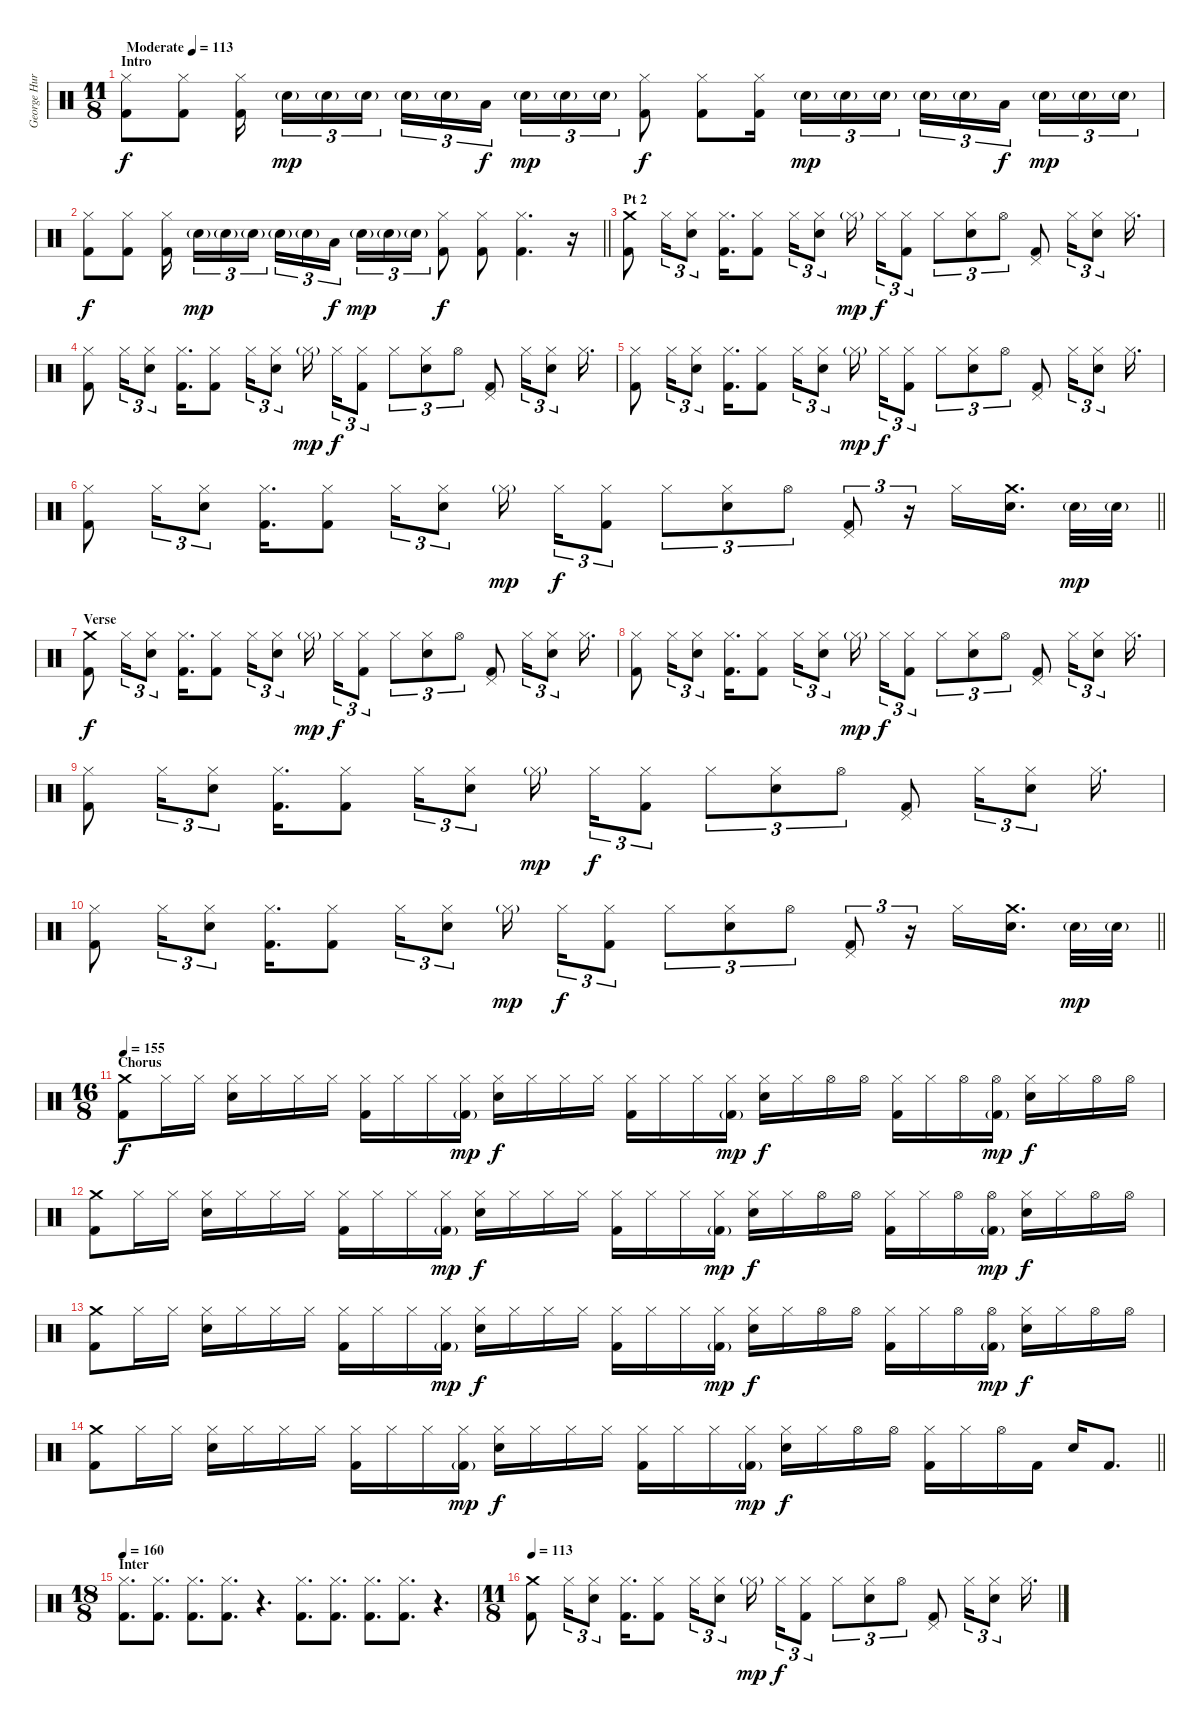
\track ("George Hurley [Drums]" "George Hur") {instrument percussion}
\staff
\articulation defaults
\ts (11 8)
\section ("" "Intro")
\tempo (113 "Moderate")
\clef neutral
\ks c
("Hi-Hat (closed)" "Kick (hit) 2").8{dy f} ("Hi-Hat (closed)" "Kick (hit) 2").8 ("Hi-Hat (closed)" "Kick (hit) 2").16{beam splitsecondary} "Snare (hit) 2"{g}.16{tu (3 2) dy mp} "Snare (hit) 2"{g}.16{tu (3 2)} "Snare (hit) 2"{g}.16{tu (3 2) beam splitsecondary} "Snare (hit) 2"{g}.16{tu (3 2)} "Snare (hit) 2"{g}.16{tu (3 2)} "Low Tom (hit)".16{tu (3 2) dy f beam splitsecondary} "Snare (hit) 2"{g}.16{tu (3 2) dy mp} "Snare (hit) 2"{g}.16{tu (3 2)} "Snare (hit) 2"{g}.16{tu (3 2)} ("Hi-Hat (closed)" "Kick (hit) 2").8{dy f} ("Hi-Hat (closed)" "Kick (hit) 2").8 ("Hi-Hat (closed)" "Kick (hit) 2").16 "Snare (hit) 2"{g}.16{tu (3 2) dy mp} "Snare (hit) 2"{g}.16{tu (3 2)} "Snare (hit) 2"{g}.16{tu (3 2)} "Snare (hit) 2"{g}.16{tu (3 2)} "Snare (hit) 2"{g}.16{tu (3 2)} "Low Tom (hit)".16{tu (3 2) dy f} "Snare (hit) 2"{g}.16{tu (3 2) dy mp} "Snare (hit) 2"{g}.16{tu (3 2)} "Snare (hit) 2"{g}.16{tu (3 2)} |
\barLineRight lightlight
("Hi-Hat (closed)" "Kick (hit) 2").8{dy f} ("Hi-Hat (closed)" "Kick (hit) 2").8 ("Hi-Hat (closed)" "Kick (hit) 2").16{beam splitsecondary} "Snare (hit) 2"{g}.16{tu (3 2) dy mp} "Snare (hit) 2"{g}.16{tu (3 2)} "Snare (hit) 2"{g}.16{tu (3 2) beam splitsecondary} "Snare (hit) 2"{g}.16{tu (3 2)} "Snare (hit) 2"{g}.16{tu (3 2)} "Low Tom (hit)".16{tu (3 2) dy f beam splitsecondary} "Snare (hit) 2"{g}.16{tu (3 2) dy mp} "Snare (hit) 2"{g}.16{tu (3 2)} "Snare (hit) 2"{g}.16{tu (3 2)} ("Hi-Hat (closed)" "Kick (hit) 2").8{dy f} ("Hi-Hat (closed)" "Kick (hit) 2").8 ("Hi-Hat (closed)" "Kick (hit) 2").4{d} r.16 |
\section ("" "Pt 2")
("Crash medium (hit)" "Kick (hit) 2").8 "Hi-Hat (closed)".16{tu (3 2)} ("Hi-Hat (closed)" "Electric Snare (hit)").8{tu (3 2)} ("Hi-Hat (closed)" "Kick (hit) 2").16{d} ("Hi-Hat (closed)" "Kick (hit) 2").8 "Hi-Hat (closed)".16{tu (3 2)} ("Hi-Hat (closed)" "Electric Snare (hit)").8{tu (3 2)} "Hi-Hat (closed)"{g}.16{dy mp} "Hi-Hat (closed)".16{tu (3 2) dy f} ("Hi-Hat (closed)" "Kick (hit) 2").8{tu (3 2)} "Hi-Hat (closed)".8{tu (3 2)} ("Hi-Hat (closed)" "Electric Snare (hit)").8{tu (3 2)} "Hi-Hat (open)".8{tu (3 2)} ("Pedal Hi-Hat (hit)" "Kick (hit) 2").8 "Hi-Hat (closed)".16{tu (3 2)} ("Hi-Hat (closed)" "Electric Snare (hit)").8{tu (3 2)} "Hi-Hat (closed)".16{d} |
("Hi-Hat (closed)" "Kick (hit) 2").8 "Hi-Hat (closed)".16{tu (3 2)} ("Hi-Hat (closed)" "Electric Snare (hit)").8{tu (3 2)} ("Hi-Hat (closed)" "Kick (hit) 2").16{d} ("Hi-Hat (closed)" "Kick (hit) 2").8 "Hi-Hat (closed)".16{tu (3 2)} ("Hi-Hat (closed)" "Electric Snare (hit)").8{tu (3 2)} "Hi-Hat (closed)"{g}.16{dy mp} "Hi-Hat (closed)".16{tu (3 2) dy f} ("Hi-Hat (closed)" "Kick (hit) 2").8{tu (3 2)} "Hi-Hat (closed)".8{tu (3 2)} ("Hi-Hat (closed)" "Electric Snare (hit)").8{tu (3 2)} "Hi-Hat (open)".8{tu (3 2)} ("Pedal Hi-Hat (hit)" "Kick (hit) 2").8 "Hi-Hat (closed)".16{tu (3 2)} ("Hi-Hat (closed)" "Electric Snare (hit)").8{tu (3 2)} "Hi-Hat (closed)".16{d} |
("Hi-Hat (closed)" "Kick (hit) 2").8 "Hi-Hat (closed)".16{tu (3 2)} ("Hi-Hat (closed)" "Electric Snare (hit)").8{tu (3 2)} ("Hi-Hat (closed)" "Kick (hit) 2").16{d} ("Hi-Hat (closed)" "Kick (hit) 2").8 "Hi-Hat (closed)".16{tu (3 2)} ("Hi-Hat (closed)" "Electric Snare (hit)").8{tu (3 2)} "Hi-Hat (closed)"{g}.16{dy mp} "Hi-Hat (closed)".16{tu (3 2) dy f} ("Hi-Hat (closed)" "Kick (hit) 2").8{tu (3 2)} "Hi-Hat (closed)".8{tu (3 2)} ("Hi-Hat (closed)" "Electric Snare (hit)").8{tu (3 2)} "Hi-Hat (open)".8{tu (3 2)} ("Pedal Hi-Hat (hit)" "Kick (hit) 2").8 "Hi-Hat (closed)".16{tu (3 2)} ("Hi-Hat (closed)" "Electric Snare (hit)").8{tu (3 2)} "Hi-Hat (closed)".16{d} |
\barLineRight lightlight
("Hi-Hat (closed)" "Kick (hit) 2").8 "Hi-Hat (closed)".16{tu (3 2)} ("Hi-Hat (closed)" "Electric Snare (hit)").8{tu (3 2)} ("Hi-Hat (closed)" "Kick (hit) 2").16{d} ("Hi-Hat (closed)" "Kick (hit) 2").8 "Hi-Hat (closed)".16{tu (3 2)} ("Hi-Hat (closed)" "Electric Snare (hit)").8{tu (3 2)} "Hi-Hat (closed)"{g}.16{dy mp} "Hi-Hat (closed)".16{tu (3 2) dy f} ("Hi-Hat (closed)" "Kick (hit) 2").8{tu (3 2)} "Hi-Hat (closed)".8{tu (3 2)} ("Hi-Hat (closed)" "Electric Snare (hit)").8{tu (3 2)} "Hi-Hat (open)".8{tu (3 2)} ("Pedal Hi-Hat (hit)" "Kick (hit) 2").8{tu (3 2)} r.16{tu (3 2)} "Hi-Hat (closed)".16 ("Crash medium (hit)" "Electric Snare (hit)").16{d} "Electric Snare (hit)"{g}.32{dy mp} "Electric Snare (hit)"{g}.32 |
\section ("" "Verse")
("Crash medium (hit)" "Kick (hit) 2").8{dy f} "Hi-Hat (closed)".16{tu (3 2)} ("Hi-Hat (closed)" "Electric Snare (hit)").8{tu (3 2)} ("Hi-Hat (closed)" "Kick (hit) 2").16{d} ("Hi-Hat (closed)" "Kick (hit) 2").8 "Hi-Hat (closed)".16{tu (3 2)} ("Hi-Hat (closed)" "Electric Snare (hit)").8{tu (3 2)} "Hi-Hat (closed)"{g}.16{dy mp} "Hi-Hat (closed)".16{tu (3 2) dy f} ("Hi-Hat (closed)" "Kick (hit) 2").8{tu (3 2)} "Hi-Hat (closed)".8{tu (3 2)} ("Hi-Hat (closed)" "Electric Snare (hit)").8{tu (3 2)} "Hi-Hat (open)".8{tu (3 2)} ("Pedal Hi-Hat (hit)" "Kick (hit) 2").8 "Hi-Hat (closed)".16{tu (3 2)} ("Hi-Hat (closed)" "Electric Snare (hit)").8{tu (3 2)} "Hi-Hat (closed)".16{d} |
("Hi-Hat (closed)" "Kick (hit) 2").8 "Hi-Hat (closed)".16{tu (3 2)} ("Hi-Hat (closed)" "Electric Snare (hit)").8{tu (3 2)} ("Hi-Hat (closed)" "Kick (hit) 2").16{d} ("Hi-Hat (closed)" "Kick (hit) 2").8 "Hi-Hat (closed)".16{tu (3 2)} ("Hi-Hat (closed)" "Electric Snare (hit)").8{tu (3 2)} "Hi-Hat (closed)"{g}.16{dy mp} "Hi-Hat (closed)".16{tu (3 2) dy f} ("Hi-Hat (closed)" "Kick (hit) 2").8{tu (3 2)} "Hi-Hat (closed)".8{tu (3 2)} ("Hi-Hat (closed)" "Electric Snare (hit)").8{tu (3 2)} "Hi-Hat (open)".8{tu (3 2)} ("Pedal Hi-Hat (hit)" "Kick (hit) 2").8 "Hi-Hat (closed)".16{tu (3 2)} ("Hi-Hat (closed)" "Electric Snare (hit)").8{tu (3 2)} "Hi-Hat (closed)".16{d} |
("Hi-Hat (closed)" "Kick (hit) 2").8 "Hi-Hat (closed)".16{tu (3 2)} ("Hi-Hat (closed)" "Electric Snare (hit)").8{tu (3 2)} ("Hi-Hat (closed)" "Kick (hit) 2").16{d} ("Hi-Hat (closed)" "Kick (hit) 2").8 "Hi-Hat (closed)".16{tu (3 2)} ("Hi-Hat (closed)" "Electric Snare (hit)").8{tu (3 2)} "Hi-Hat (closed)"{g}.16{dy mp} "Hi-Hat (closed)".16{tu (3 2) dy f} ("Hi-Hat (closed)" "Kick (hit) 2").8{tu (3 2)} "Hi-Hat (closed)".8{tu (3 2)} ("Hi-Hat (closed)" "Electric Snare (hit)").8{tu (3 2)} "Hi-Hat (open)".8{tu (3 2)} ("Pedal Hi-Hat (hit)" "Kick (hit) 2").8 "Hi-Hat (closed)".16{tu (3 2)} ("Hi-Hat (closed)" "Electric Snare (hit)").8{tu (3 2)} "Hi-Hat (closed)".16{d} |
\barLineRight lightlight
("Hi-Hat (closed)" "Kick (hit) 2").8 "Hi-Hat (closed)".16{tu (3 2)} ("Hi-Hat (closed)" "Electric Snare (hit)").8{tu (3 2)} ("Hi-Hat (closed)" "Kick (hit) 2").16{d} ("Hi-Hat (closed)" "Kick (hit) 2").8 "Hi-Hat (closed)".16{tu (3 2)} ("Hi-Hat (closed)" "Electric Snare (hit)").8{tu (3 2)} "Hi-Hat (closed)"{g}.16{dy mp} "Hi-Hat (closed)".16{tu (3 2) dy f} ("Hi-Hat (closed)" "Kick (hit) 2").8{tu (3 2)} "Hi-Hat (closed)".8{tu (3 2)} ("Hi-Hat (closed)" "Electric Snare (hit)").8{tu (3 2)} "Hi-Hat (open)".8{tu (3 2)} ("Pedal Hi-Hat (hit)" "Kick (hit) 2").8{tu (3 2)} r.16{tu (3 2)} "Hi-Hat (closed)".16 ("Crash medium (hit)" "Electric Snare (hit)").16{d} "Electric Snare (hit)"{g}.32{dy mp} "Electric Snare (hit)"{g}.32 |
\ts (16 8)
\section ("" "Chorus")
\tempo 155
("Crash medium (hit)" "Kick (hit) 2").8{dy f} "Hi-Hat (closed)".16 "Hi-Hat (closed)".16 ("Hi-Hat (closed)" "Electric Snare (hit)").16 "Hi-Hat (closed)".16 "Hi-Hat (closed)".16 "Hi-Hat (closed)".16 ("Hi-Hat (closed)" "Kick (hit) 2").16 "Hi-Hat (closed)".16 "Hi-Hat (closed)".16 ("Hi-Hat (closed)" "Kick (hit) 2"{g}).16{dy mp} ("Hi-Hat (closed)" "Electric Snare (hit)").16{dy f} "Hi-Hat (closed)".16 "Hi-Hat (closed)".16 "Hi-Hat (closed)".16 ("Hi-Hat (closed)" "Kick (hit) 2").16 "Hi-Hat (closed)".16 "Hi-Hat (closed)".16 ("Hi-Hat (closed)" "Kick (hit) 2"{g}).16{dy mp} ("Hi-Hat (closed)" "Electric Snare (hit)").16{dy f} "Hi-Hat (closed)".16 "Hi-Hat (open)".16 "Hi-Hat (open)".16 ("Hi-Hat (closed)" "Kick (hit) 2").16 "Hi-Hat (closed)".16 "Hi-Hat (open)".16 ("Hi-Hat (open)" "Kick (hit) 2"{g}).16{dy mp} ("Hi-Hat (closed)" "Electric Snare (hit)").16{dy f} "Hi-Hat (closed)".16 "Hi-Hat (open)".16 "Hi-Hat (open)".16 |
("Crash medium (hit)" "Kick (hit) 2").8 "Hi-Hat (closed)".16 "Hi-Hat (closed)".16 ("Hi-Hat (closed)" "Electric Snare (hit)").16 "Hi-Hat (closed)".16 "Hi-Hat (closed)".16 "Hi-Hat (closed)".16 ("Hi-Hat (closed)" "Kick (hit) 2").16 "Hi-Hat (closed)".16 "Hi-Hat (closed)".16 ("Hi-Hat (closed)" "Kick (hit) 2"{g}).16{dy mp} ("Hi-Hat (closed)" "Electric Snare (hit)").16{dy f} "Hi-Hat (closed)".16 "Hi-Hat (closed)".16 "Hi-Hat (closed)".16 ("Hi-Hat (closed)" "Kick (hit) 2").16 "Hi-Hat (closed)".16 "Hi-Hat (closed)".16 ("Hi-Hat (closed)" "Kick (hit) 2"{g}).16{dy mp} ("Hi-Hat (closed)" "Electric Snare (hit)").16{dy f} "Hi-Hat (closed)".16 "Hi-Hat (open)".16 "Hi-Hat (open)".16 ("Hi-Hat (closed)" "Kick (hit) 2").16 "Hi-Hat (closed)".16 "Hi-Hat (open)".16 ("Hi-Hat (open)" "Kick (hit) 2"{g}).16{dy mp} ("Hi-Hat (closed)" "Electric Snare (hit)").16{dy f} "Hi-Hat (closed)".16 "Hi-Hat (open)".16 "Hi-Hat (open)".16 |
("Crash medium (hit)" "Kick (hit) 2").8 "Hi-Hat (closed)".16 "Hi-Hat (closed)".16 ("Hi-Hat (closed)" "Electric Snare (hit)").16 "Hi-Hat (closed)".16 "Hi-Hat (closed)".16 "Hi-Hat (closed)".16 ("Hi-Hat (closed)" "Kick (hit) 2").16 "Hi-Hat (closed)".16 "Hi-Hat (closed)".16 ("Hi-Hat (closed)" "Kick (hit) 2"{g}).16{dy mp} ("Hi-Hat (closed)" "Electric Snare (hit)").16{dy f} "Hi-Hat (closed)".16 "Hi-Hat (closed)".16 "Hi-Hat (closed)".16 ("Hi-Hat (closed)" "Kick (hit) 2").16 "Hi-Hat (closed)".16 "Hi-Hat (closed)".16 ("Hi-Hat (closed)" "Kick (hit) 2"{g}).16{dy mp} ("Hi-Hat (closed)" "Electric Snare (hit)").16{dy f} "Hi-Hat (closed)".16 "Hi-Hat (open)".16 "Hi-Hat (open)".16 ("Hi-Hat (closed)" "Kick (hit) 2").16 "Hi-Hat (closed)".16 "Hi-Hat (open)".16 ("Hi-Hat (open)" "Kick (hit) 2"{g}).16{dy mp} ("Hi-Hat (closed)" "Electric Snare (hit)").16{dy f} "Hi-Hat (closed)".16 "Hi-Hat (open)".16 "Hi-Hat (open)".16 |
\barLineRight lightlight
("Crash medium (hit)" "Kick (hit) 2").8 "Hi-Hat (closed)".16 "Hi-Hat (closed)".16 ("Hi-Hat (closed)" "Electric Snare (hit)").16 "Hi-Hat (closed)".16 "Hi-Hat (closed)".16 "Hi-Hat (closed)".16 ("Hi-Hat (closed)" "Kick (hit) 2").16 "Hi-Hat (closed)".16 "Hi-Hat (closed)".16 ("Hi-Hat (closed)" "Kick (hit) 2"{g}).16{dy mp} ("Hi-Hat (closed)" "Electric Snare (hit)").16{dy f} "Hi-Hat (closed)".16 "Hi-Hat (closed)".16 "Hi-Hat (closed)".16 ("Hi-Hat (closed)" "Kick (hit) 2").16 "Hi-Hat (closed)".16 "Hi-Hat (closed)".16 ("Hi-Hat (closed)" "Kick (hit) 2"{g}).16{dy mp} ("Hi-Hat (closed)" "Electric Snare (hit)").16{dy f} "Hi-Hat (closed)".16 "Hi-Hat (open)".16 "Hi-Hat (open)".16 ("Hi-Hat (closed)" "Kick (hit) 2").16 "Hi-Hat (closed)".16 "Hi-Hat (open)".16 "Kick (hit) 2".16 "Electric Snare (hit)".16 "Kick (hit) 2".8{d} |
\ts (18 8)
\section ("" "Inter")
\tempo 160
("Hi-Hat (closed)" "Kick (hit) 2").8{d} ("Hi-Hat (closed)" "Kick (hit) 2").8{d} ("Hi-Hat (closed)" "Kick (hit) 2").8{d} ("Hi-Hat (closed)" "Kick (hit) 2").8{d} r.4{d} ("Hi-Hat (closed)" "Kick (hit) 2").8{d} ("Hi-Hat (closed)" "Kick (hit) 2").8{d} ("Hi-Hat (closed)" "Kick (hit) 2").8{d} ("Hi-Hat (closed)" "Kick (hit) 2").8{d} r.4{d} |
\ts (11 8)
\tempo 113
("Crash medium (hit)" "Kick (hit) 2").8 "Hi-Hat (closed)".16{tu (3 2)} ("Hi-Hat (closed)" "Electric Snare (hit)").8{tu (3 2)} ("Hi-Hat (closed)" "Kick (hit) 2").16{d} ("Hi-Hat (closed)" "Kick (hit) 2").8 "Hi-Hat (closed)".16{tu (3 2)} ("Hi-Hat (closed)" "Electric Snare (hit)").8{tu (3 2)} "Hi-Hat (closed)"{g}.16{dy mp} "Hi-Hat (closed)".16{tu (3 2) dy f} ("Hi-Hat (closed)" "Kick (hit) 2").8{tu (3 2)} "Hi-Hat (closed)".8{tu (3 2)} ("Hi-Hat (closed)" "Electric Snare (hit)").8{tu (3 2)} "Hi-Hat (open)".8{tu (3 2)} ("Pedal Hi-Hat (hit)" "Kick (hit) 2").8 "Hi-Hat (closed)".16{tu (3 2)} ("Hi-Hat (closed)" "Electric Snare (hit)").8{tu (3 2)} "Hi-Hat (closed)".16{d}
